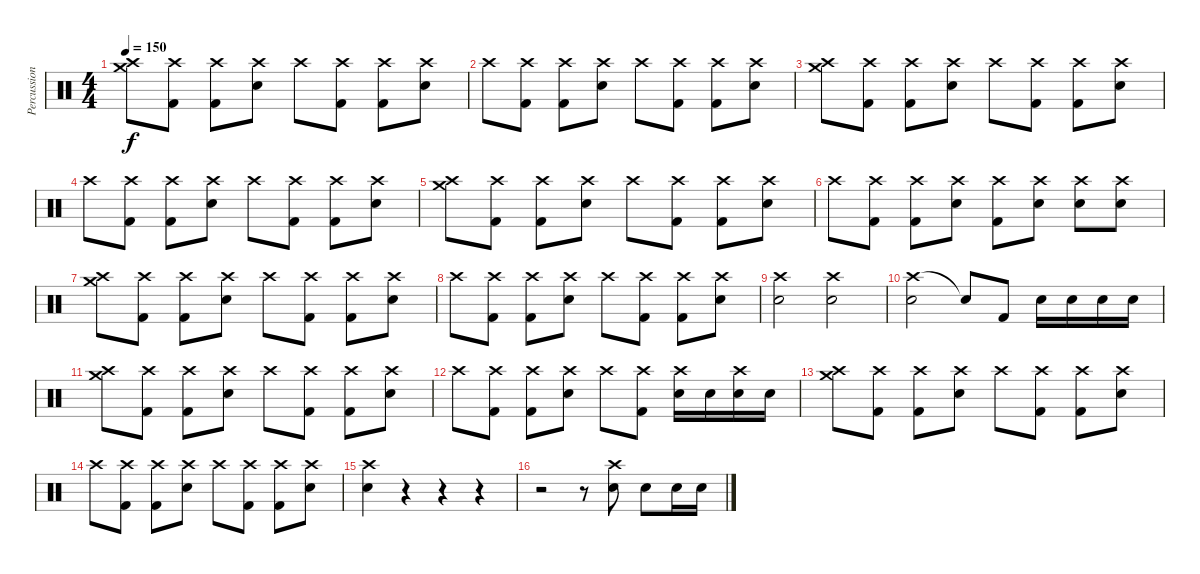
\track ("Percussioni" "Percussion") {instrument percussion}
\staff {score}
\articulation defaults
\ts (4 4)
\tempo 150
\clef neutral
\ks c
("Crash high (hit)" "Crash medium (hit)").8{dy f} ("Crash high (hit)" "Kick (hit) 2").8 ("Crash high (hit)" "Kick (hit) 2").8 ("Crash high (hit)" "Snare (hit) 2").8 "Crash high (hit)".8 ("Crash high (hit)" "Kick (hit) 2").8 ("Crash high (hit)" "Kick (hit) 2").8 ("Crash high (hit)" "Snare (hit) 2").8 |
"Crash high (hit)".8 ("Crash high (hit)" "Kick (hit) 2").8 ("Crash high (hit)" "Kick (hit) 2").8 ("Crash high (hit)" "Snare (hit) 2").8 "Crash high (hit)".8 ("Crash high (hit)" "Kick (hit) 2").8 ("Crash high (hit)" "Kick (hit) 2").8 ("Crash high (hit)" "Snare (hit) 2").8 |
("Crash high (hit)" "Crash medium (hit)").8 ("Crash high (hit)" "Kick (hit) 2").8 ("Crash high (hit)" "Kick (hit) 2").8 ("Crash high (hit)" "Snare (hit) 2").8 "Crash high (hit)".8 ("Crash high (hit)" "Kick (hit) 2").8 ("Crash high (hit)" "Kick (hit) 2").8 ("Crash high (hit)" "Snare (hit) 2").8 |
"Crash high (hit)".8 ("Crash high (hit)" "Kick (hit) 2").8 ("Crash high (hit)" "Kick (hit) 2").8 ("Crash high (hit)" "Snare (hit) 2").8 "Crash high (hit)".8 ("Crash high (hit)" "Kick (hit) 2").8 ("Crash high (hit)" "Kick (hit) 2").8 ("Crash high (hit)" "Snare (hit) 2").8 |
("Crash high (hit)" "Crash medium (hit)").8 ("Crash high (hit)" "Kick (hit) 2").8 ("Crash high (hit)" "Kick (hit) 2").8 ("Crash high (hit)" "Snare (hit) 2").8 "Crash high (hit)".8 ("Crash high (hit)" "Kick (hit) 2").8 ("Crash high (hit)" "Kick (hit) 2").8 ("Crash high (hit)" "Snare (hit) 2").8 |
"Crash high (hit)".8 ("Crash high (hit)" "Kick (hit) 2").8 ("Crash high (hit)" "Kick (hit) 2").8 ("Crash high (hit)" "Snare (hit) 2").8 ("Crash high (hit)" "Kick (hit) 2").8 ("Crash high (hit)" "Snare (hit) 2").8 ("Crash high (hit)" "Snare (hit) 2").8 ("Crash high (hit)" "Snare (hit) 2").8 |
("Crash high (hit)" "Crash medium (hit)").8 ("Crash high (hit)" "Kick (hit) 2").8 ("Crash high (hit)" "Kick (hit) 2").8 ("Crash high (hit)" "Snare (hit) 2").8 "Crash high (hit)".8 ("Crash high (hit)" "Kick (hit) 2").8 ("Crash high (hit)" "Kick (hit) 2").8 ("Crash high (hit)" "Snare (hit) 2").8 |
"Crash high (hit)".8 ("Crash high (hit)" "Kick (hit) 2").8 ("Crash high (hit)" "Kick (hit) 2").8 ("Crash high (hit)" "Snare (hit) 2").8 "Crash high (hit)".8 ("Crash high (hit)" "Kick (hit) 2").8 ("Crash high (hit)" "Kick (hit) 2").8 ("Crash high (hit)" "Snare (hit) 2").8 |
("Crash high (hit)" "Snare (hit) 2").2 ("Crash high (hit)" "Snare (hit) 2").2 |
("Crash high (hit)" "Snare (hit) 2").2 "Snare (hit)"{t}.8 "Kick (hit) 2".8 "Snare (hit) 2".16 "Snare (hit) 2".16 "Snare (hit) 2".16 "Snare (hit) 2".16 |
("Crash high (hit)" "Crash medium (hit)").8 ("Crash high (hit)" "Kick (hit) 2").8 ("Crash high (hit)" "Kick (hit) 2").8 ("Crash high (hit)" "Snare (hit) 2").8 "Crash high (hit)".8 ("Crash high (hit)" "Kick (hit) 2").8 ("Crash high (hit)" "Kick (hit) 2").8 ("Crash high (hit)" "Snare (hit) 2").8 |
"Crash high (hit)".8 ("Crash high (hit)" "Kick (hit) 2").8 ("Crash high (hit)" "Kick (hit) 2").8 ("Crash high (hit)" "Snare (hit) 2").8 "Crash high (hit)".8 ("Crash high (hit)" "Kick (hit) 2").8 ("Crash high (hit)" "Snare (hit) 2").16 "Snare (hit) 2".16 ("Crash high (hit)" "Snare (hit) 2").16 "Snare (hit) 2".16 |
("Crash high (hit)" "Crash medium (hit)").8 ("Crash high (hit)" "Kick (hit) 2").8 ("Crash high (hit)" "Kick (hit) 2").8 ("Crash high (hit)" "Snare (hit) 2").8 "Crash high (hit)".8 ("Crash high (hit)" "Kick (hit) 2").8 ("Crash high (hit)" "Kick (hit) 2").8 ("Crash high (hit)" "Snare (hit) 2").8 |
"Crash high (hit)".8 ("Crash high (hit)" "Kick (hit) 2").8 ("Crash high (hit)" "Kick (hit) 2").8 ("Crash high (hit)" "Snare (hit) 2").8 "Crash high (hit)".8 ("Crash high (hit)" "Kick (hit) 2").8 ("Crash high (hit)" "Kick (hit) 2").8 ("Crash high (hit)" "Snare (hit) 2").8 |
("Crash high (hit)" "Snare (hit) 2").4 r.4 r.4 r.4 |
r.2 r.8 ("Crash high (hit)" "Snare (hit) 2").8 "Snare (hit) 2".8 "Snare (hit) 2".16 "Snare (hit) 2".16
